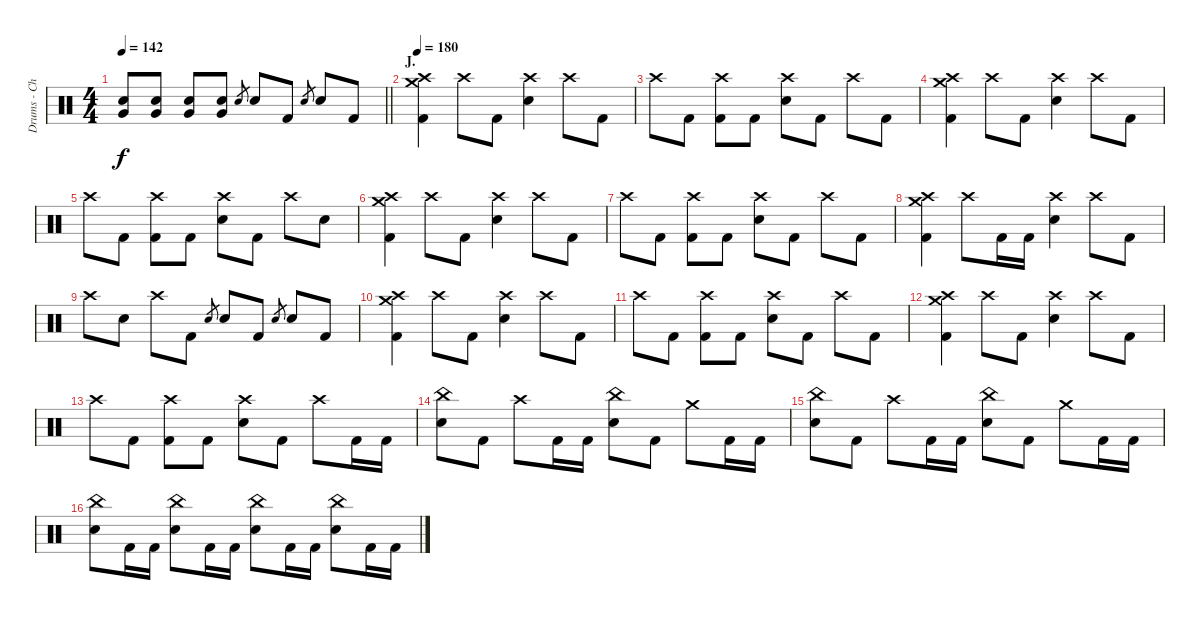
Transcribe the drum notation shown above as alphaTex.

\track ("Drums - Christopher Hornbrook" "Drums - Ch") {instrument percussion}
\staff {score}
\articulation defaults
\ts (4 4)
\tempo 142
\clef neutral
\barLineRight lightlight
\ks c
("Very Low Tom (hit)" "Electric Snare (hit)").8{bu 120 dy f} ("Very Low Tom (hit)" "Electric Snare (hit)").8{bu 120} ("Very Low Tom (hit)" "Electric Snare (hit)").8{bu 120} ("Very Low Tom (hit)" "Electric Snare (hit)").8{bu 120} "Electric Snare (hit)".8{gr} "Electric Snare (hit)".8 "Kick (hit) 2".8 "Electric Snare (hit)".8{gr} "Electric Snare (hit)".8 "Kick (hit) 2".8 |
\section ("" "J.")
\tempo 180
("Crash medium (hit)" "Crash high (hit)" "Kick (hit) 2").4 "Crash high (hit)".8 "Kick (hit) 2".8 ("Crash high (hit)" "Electric Snare (hit)").4 "Crash high (hit)".8 "Kick (hit) 2".8 |
"Crash high (hit)".8 "Kick (hit) 2".8 ("Crash high (hit)" "Kick (hit) 2").8 "Kick (hit) 2".8 ("Crash high (hit)" "Electric Snare (hit)").8 "Kick (hit) 2".8 "Crash high (hit)".8 "Kick (hit) 2".8 |
("Crash medium (hit)" "Crash high (hit)" "Kick (hit) 2").4 "Crash high (hit)".8 "Kick (hit) 2".8 ("Crash high (hit)" "Electric Snare (hit)").4 "Crash high (hit)".8 "Kick (hit) 2".8 |
"Crash high (hit)".8 "Kick (hit) 2".8 ("Crash high (hit)" "Kick (hit) 2").8 "Kick (hit) 2".8 ("Crash high (hit)" "Electric Snare (hit)").8 "Kick (hit) 2".8 "Crash high (hit)".8 "Electric Snare (hit)".8 |
("Crash medium (hit)" "Crash high (hit)" "Kick (hit) 2").4 "Crash high (hit)".8 "Kick (hit) 2".8 ("Crash high (hit)" "Electric Snare (hit)").4 "Crash high (hit)".8 "Kick (hit) 2".8 |
"Crash high (hit)".8 "Kick (hit) 2".8 ("Crash high (hit)" "Kick (hit) 2").8 "Kick (hit) 2".8 ("Crash high (hit)" "Electric Snare (hit)").8 "Kick (hit) 2".8 "Crash high (hit)".8 "Kick (hit) 2".8 |
("Crash medium (hit)" "Crash high (hit)" "Kick (hit) 2").4 "Crash high (hit)".8 "Kick (hit) 2".16 "Kick (hit) 2".16 ("Crash high (hit)" "Electric Snare (hit)").4 "Crash high (hit)".8 "Kick (hit) 2".8 |
"Crash high (hit)".8 "Electric Snare (hit)".8 "Crash high (hit)".8 "Kick (hit) 2".8 "Electric Snare (hit)".8{gr} "Electric Snare (hit)".8 "Kick (hit) 2".8 "Electric Snare (hit)".8{gr} "Electric Snare (hit)".8 "Kick (hit) 2".8 |
("Crash medium (hit)" "Crash high (hit)" "Kick (hit) 2").4 "Crash high (hit)".8 "Kick (hit) 2".8 ("Crash high (hit)" "Electric Snare (hit)").4 "Crash high (hit)".8 "Kick (hit) 2".8 |
"Crash high (hit)".8 "Kick (hit) 2".8 ("Crash high (hit)" "Kick (hit) 2").8 "Kick (hit) 2".8 ("Crash high (hit)" "Electric Snare (hit)").8 "Kick (hit) 2".8 "Crash high (hit)".8 "Kick (hit) 2".8 |
("Crash medium (hit)" "Crash high (hit)" "Kick (hit) 2").4 "Crash high (hit)".8 "Kick (hit) 2".8 ("Crash high (hit)" "Electric Snare (hit)").4 "Crash high (hit)".8 "Kick (hit) 2".8 |
"Crash high (hit)".8 "Kick (hit) 2".8 ("Crash high (hit)" "Kick (hit) 2").8 "Kick (hit) 2".8 ("Crash high (hit)" "Electric Snare (hit)").8 "Kick (hit) 2".8 "Crash high (hit)".8 "Kick (hit) 2".16 "Kick (hit) 2".16 |
("China (hit)" "Electric Snare (hit)").8 "Kick (hit) 2".8 "Crash high (hit)".8 "Kick (hit) 2".16 "Kick (hit) 2".16 ("China (hit)" "Electric Snare (hit)").8 "Kick (hit) 2".8 "Crash medium (hit)".8 "Kick (hit) 2".16 "Kick (hit) 2".16 |
("China (hit)" "Electric Snare (hit)").8 "Kick (hit) 2".8 "Crash high (hit)".8 "Kick (hit) 2".16 "Kick (hit) 2".16 ("China (hit)" "Electric Snare (hit)").8 "Kick (hit) 2".8 "Crash medium (hit)".8 "Kick (hit) 2".16 "Kick (hit) 2".16 |
("China (hit)" "Electric Snare (hit)").8 "Kick (hit) 2".16 "Kick (hit) 2".16 ("China (hit)" "Electric Snare (hit)").8 "Kick (hit) 2".16 "Kick (hit) 2".16 ("China (hit)" "Electric Snare (hit)").8 "Kick (hit) 2".16 "Kick (hit) 2".16 ("China (hit)" "Electric Snare (hit)").8 "Kick (hit) 2".16 "Kick (hit) 2".16
